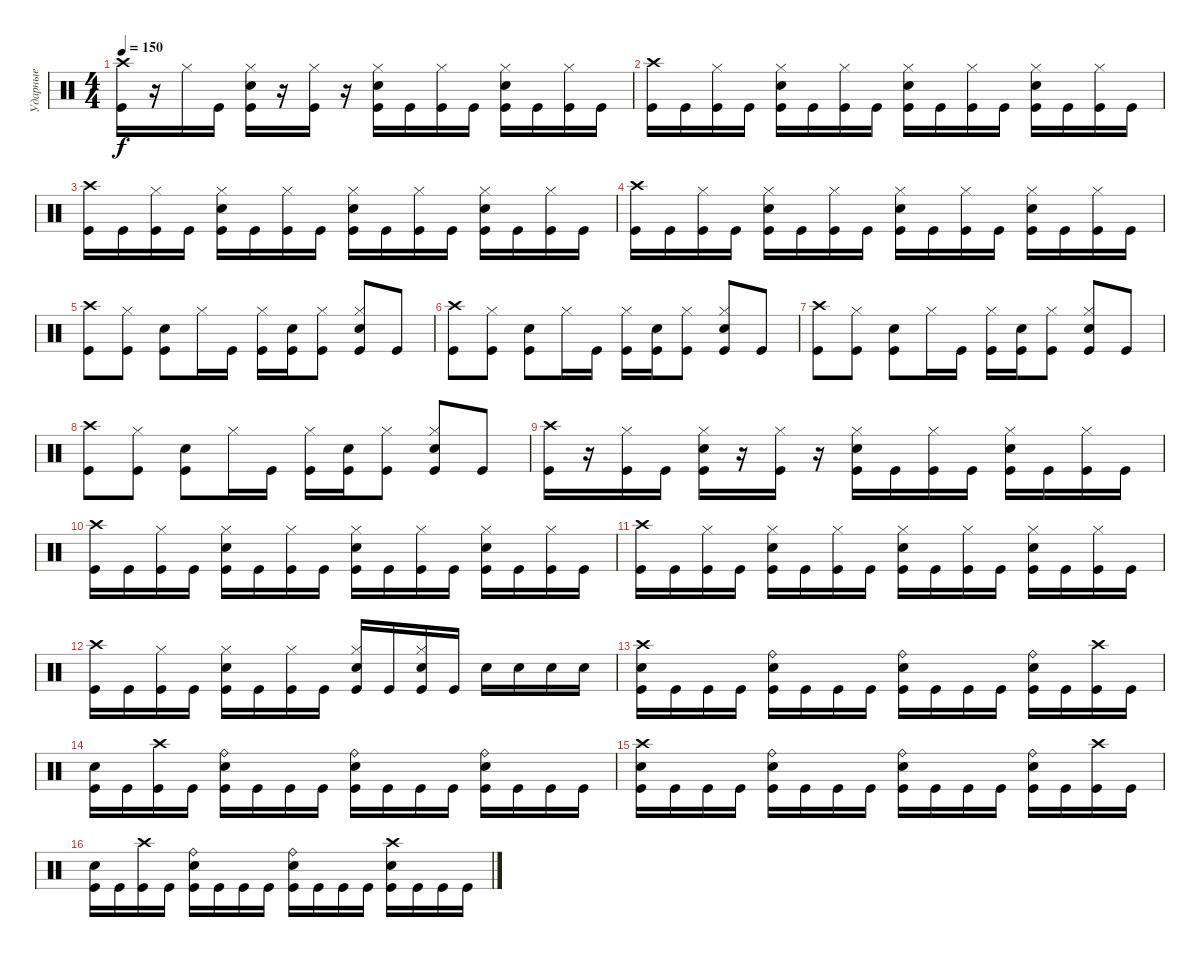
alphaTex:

\track ("Ударные" "Ударные") {instrument percussion}
\staff {score}
\articulation defaults
\ts (4 4)
\tempo 150
\clef neutral
\ks c
("Crash high (hit)" "Kick (hit)").16{dy f} r.16 "Hi-Hat (closed)".16 "Kick (hit)".16 ("Hi-Hat (closed)" "Electric Snare (hit)" "Kick (hit)").16 r.16 ("Hi-Hat (closed)" "Kick (hit)").16 r.16 ("Hi-Hat (closed)" "Electric Snare (hit)" "Kick (hit)").16 "Kick (hit)".16 ("Hi-Hat (closed)" "Kick (hit)").16 "Kick (hit)".16 ("Hi-Hat (closed)" "Electric Snare (hit)" "Kick (hit)").16 "Kick (hit)".16 ("Hi-Hat (closed)" "Kick (hit)").16 "Kick (hit)".16 |
("Crash high (hit)" "Kick (hit)").16 "Kick (hit)".16 ("Hi-Hat (closed)" "Kick (hit)").16 "Kick (hit)".16 ("Hi-Hat (closed)" "Electric Snare (hit)" "Kick (hit)").16 "Kick (hit)".16 ("Hi-Hat (closed)" "Kick (hit)").16 "Kick (hit)".16 ("Hi-Hat (closed)" "Electric Snare (hit)" "Kick (hit)").16 "Kick (hit)".16 ("Hi-Hat (closed)" "Kick (hit)").16 "Kick (hit)".16 ("Hi-Hat (closed)" "Electric Snare (hit)" "Kick (hit)").16 "Kick (hit)".16 ("Hi-Hat (closed)" "Kick (hit)").16 "Kick (hit)".16 |
("Crash high (hit)" "Kick (hit)").16 "Kick (hit)".16 ("Hi-Hat (closed)" "Kick (hit)").16 "Kick (hit)".16 ("Hi-Hat (closed)" "Electric Snare (hit)" "Kick (hit)").16 "Kick (hit)".16 ("Hi-Hat (closed)" "Kick (hit)").16 "Kick (hit)".16 ("Hi-Hat (closed)" "Electric Snare (hit)" "Kick (hit)").16 "Kick (hit)".16 ("Hi-Hat (closed)" "Kick (hit)").16 "Kick (hit)".16 ("Hi-Hat (closed)" "Electric Snare (hit)" "Kick (hit)").16 "Kick (hit)".16 ("Hi-Hat (closed)" "Kick (hit)").16 "Kick (hit)".16 |
("Crash high (hit)" "Kick (hit)").16 "Kick (hit)".16 ("Hi-Hat (closed)" "Kick (hit)").16 "Kick (hit)".16 ("Hi-Hat (closed)" "Electric Snare (hit)" "Kick (hit)").16 "Kick (hit)".16 ("Hi-Hat (closed)" "Kick (hit)").16 "Kick (hit)".16 ("Hi-Hat (closed)" "Electric Snare (hit)" "Kick (hit)").16 "Kick (hit)".16 ("Hi-Hat (closed)" "Kick (hit)").16 "Kick (hit)".16 ("Hi-Hat (closed)" "Electric Snare (hit)" "Kick (hit)").16 "Kick (hit)".16 ("Hi-Hat (closed)" "Kick (hit)").16 "Kick (hit)".16 |
("Crash high (hit)" "Kick (hit)").8 ("Hi-Hat (closed)" "Kick (hit)").8 ("Electric Snare (hit)" "Kick (hit)").8 "Hi-Hat (closed)".16 "Kick (hit)".16 ("Hi-Hat (closed)" "Kick (hit)").16 ("Electric Snare (hit)" "Kick (hit)").16 ("Hi-Hat (closed)" "Kick (hit)").8 ("Hi-Hat (closed)" "Electric Snare (hit)" "Kick (hit)").8 "Kick (hit)".8 |
("Crash high (hit)" "Kick (hit)").8 ("Hi-Hat (closed)" "Kick (hit)").8 ("Electric Snare (hit)" "Kick (hit)").8 "Hi-Hat (closed)".16 "Kick (hit)".16 ("Hi-Hat (closed)" "Kick (hit)").16 ("Electric Snare (hit)" "Kick (hit)").16 ("Hi-Hat (closed)" "Kick (hit)").8 ("Hi-Hat (closed)" "Electric Snare (hit)" "Kick (hit)").8 "Kick (hit)".8 |
("Crash high (hit)" "Kick (hit)").8 ("Hi-Hat (closed)" "Kick (hit)").8 ("Electric Snare (hit)" "Kick (hit)").8 "Hi-Hat (closed)".16 "Kick (hit)".16 ("Hi-Hat (closed)" "Kick (hit)").16 ("Electric Snare (hit)" "Kick (hit)").16 ("Hi-Hat (closed)" "Kick (hit)").8 ("Hi-Hat (closed)" "Electric Snare (hit)" "Kick (hit)").8 "Kick (hit)".8 |
("Crash high (hit)" "Kick (hit)").8 ("Hi-Hat (closed)" "Kick (hit)").8 ("Electric Snare (hit)" "Kick (hit)").8 "Hi-Hat (closed)".16 "Kick (hit)".16 ("Hi-Hat (closed)" "Kick (hit)").16 ("Electric Snare (hit)" "Kick (hit)").16 ("Hi-Hat (closed)" "Kick (hit)").8 ("Hi-Hat (closed)" "Electric Snare (hit)" "Kick (hit)").8 "Kick (hit)".8 |
("Crash high (hit)" "Kick (hit)").16 r.16 ("Hi-Hat (closed)" "Kick (hit)").16 "Kick (hit)".16 ("Hi-Hat (closed)" "Electric Snare (hit)" "Kick (hit)").16 r.16 ("Hi-Hat (closed)" "Kick (hit)").16 r.16 ("Hi-Hat (closed)" "Electric Snare (hit)" "Kick (hit)").16 "Kick (hit)".16 ("Hi-Hat (closed)" "Kick (hit)").16 "Kick (hit)".16 ("Hi-Hat (closed)" "Electric Snare (hit)" "Kick (hit)").16 "Kick (hit)".16 ("Hi-Hat (closed)" "Kick (hit)").16 "Kick (hit)".16 |
("Crash high (hit)" "Kick (hit)").16 "Kick (hit)".16 ("Hi-Hat (closed)" "Kick (hit)").16 "Kick (hit)".16 ("Hi-Hat (closed)" "Electric Snare (hit)" "Kick (hit)").16 "Kick (hit)".16 ("Hi-Hat (closed)" "Kick (hit)").16 "Kick (hit)".16 ("Hi-Hat (closed)" "Electric Snare (hit)" "Kick (hit)").16 "Kick (hit)".16 ("Hi-Hat (closed)" "Kick (hit)").16 "Kick (hit)".16 ("Hi-Hat (closed)" "Electric Snare (hit)" "Kick (hit)").16 "Kick (hit)".16 ("Hi-Hat (closed)" "Kick (hit)").16 "Kick (hit)".16 |
("Crash high (hit)" "Kick (hit)").16 "Kick (hit)".16 ("Hi-Hat (closed)" "Kick (hit)").16 "Kick (hit)".16 ("Hi-Hat (closed)" "Electric Snare (hit)" "Kick (hit)").16 "Kick (hit)".16 ("Hi-Hat (closed)" "Kick (hit)").16 "Kick (hit)".16 ("Hi-Hat (closed)" "Electric Snare (hit)" "Kick (hit)").16 "Kick (hit)".16 ("Hi-Hat (closed)" "Kick (hit)").16 "Kick (hit)".16 ("Hi-Hat (closed)" "Electric Snare (hit)" "Kick (hit)").16 "Kick (hit)".16 ("Hi-Hat (closed)" "Kick (hit)").16 "Kick (hit)".16 |
("Crash high (hit)" "Kick (hit)").16 "Kick (hit)".16 ("Hi-Hat (closed)" "Kick (hit)").16 "Kick (hit)".16 ("Hi-Hat (closed)" "Electric Snare (hit)" "Kick (hit)").16 "Kick (hit)".16 ("Hi-Hat (closed)" "Kick (hit)").16 "Kick (hit)".16 ("Hi-Hat (closed)" "Electric Snare (hit)" "Kick (hit)").16 "Kick (hit)".16 ("Hi-Hat (closed)" "Electric Snare (hit)" "Kick (hit)").16 "Kick (hit)".16 "Electric Snare (hit)".16 "Electric Snare (hit)".16 "Electric Snare (hit)".16 "Electric Snare (hit)".16 |
("Crash high (hit)" "Electric Snare (hit)" "Kick (hit)").16 "Kick (hit)".16 "Kick (hit)".16 "Kick (hit)".16 ("Ride (bell)" "Electric Snare (hit)" "Kick (hit)").16 "Kick (hit)".16 "Kick (hit)".16 "Kick (hit)".16 ("Ride (bell)" "Electric Snare (hit)" "Kick (hit)").16 "Kick (hit)".16 "Kick (hit)".16 "Kick (hit)".16 ("Ride (bell)" "Electric Snare (hit)" "Kick (hit)").16 "Kick (hit)".16 ("Crash high (hit)" "Kick (hit)").16 "Kick (hit)".16 |
("Electric Snare (hit)" "Kick (hit)").16 "Kick (hit)".16 ("Crash high (hit)" "Kick (hit)").16 "Kick (hit)".16 ("Ride (bell)" "Electric Snare (hit)" "Kick (hit)").16 "Kick (hit)".16 "Kick (hit)".16 "Kick (hit)".16 ("Ride (bell)" "Electric Snare (hit)" "Kick (hit)").16 "Kick (hit)".16 "Kick (hit)".16 "Kick (hit)".16 ("Ride (bell)" "Electric Snare (hit)" "Kick (hit)").16 "Kick (hit)".16 "Kick (hit)".16 "Kick (hit)".16 |
("Crash high (hit)" "Electric Snare (hit)" "Kick (hit)").16 "Kick (hit)".16 "Kick (hit)".16 "Kick (hit)".16 ("Ride (bell)" "Electric Snare (hit)" "Kick (hit)").16 "Kick (hit)".16 "Kick (hit)".16 "Kick (hit)".16 ("Ride (bell)" "Electric Snare (hit)" "Kick (hit)").16 "Kick (hit)".16 "Kick (hit)".16 "Kick (hit)".16 ("Ride (bell)" "Electric Snare (hit)" "Kick (hit)").16 "Kick (hit)".16 ("Crash high (hit)" "Kick (hit)").16 "Kick (hit)".16 |
("Electric Snare (hit)" "Kick (hit)").16 "Kick (hit)".16 ("Crash high (hit)" "Kick (hit)").16 "Kick (hit)".16 ("Ride (bell)" "Electric Snare (hit)" "Kick (hit)").16 "Kick (hit)".16 "Kick (hit)".16 "Kick (hit)".16 ("Ride (bell)" "Electric Snare (hit)" "Kick (hit)").16 "Kick (hit)".16 "Kick (hit)".16 "Kick (hit)".16 ("Crash high (hit)" "Electric Snare (hit)" "Kick (hit)").16 "Kick (hit)".16 "Kick (hit)".16 "Kick (hit)".16
